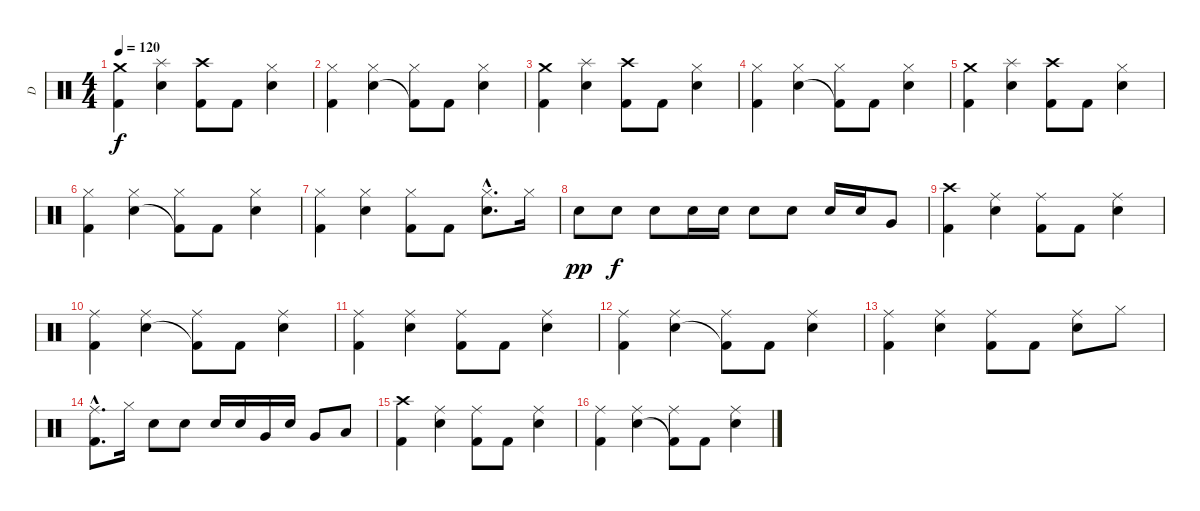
\track ("D" "D") {instrument percussion}
\staff {score}
\articulation defaults
\ts (4 4)
\tempo 120
\clef neutral
\ks c
("Crash medium (hit)" "Kick (hit) 2").4{dy f} ("Splash (hit)" "Snare (hit) 2").4 ("Crash high (hit)" "Kick (hit) 2").8 "Kick (hit) 2".8 ("Hi-Hat (closed)" "Snare (hit) 2").4 |
("Hi-Hat (closed)" "Kick (hit) 2").4 ("Hi-Hat (closed)" "Snare (hit) 2").4 ("Hi-Hat (closed)" "Kick (hit) 2"{t}).8 "Kick (hit) 2".8 ("Hi-Hat (closed)" "Snare (hit) 2").4 |
("Crash medium (hit)" "Kick (hit) 2").4 ("Splash (hit)" "Snare (hit) 2").4 ("Crash high (hit)" "Kick (hit) 2").8 "Kick (hit) 2".8 ("Hi-Hat (closed)" "Snare (hit) 2").4 |
("Hi-Hat (closed)" "Kick (hit) 2").4 ("Hi-Hat (closed)" "Snare (hit) 2").4 ("Hi-Hat (closed)" "Kick (hit) 2"{t}).8 "Kick (hit) 2".8 ("Hi-Hat (closed)" "Snare (hit) 2").4 |
("Crash medium (hit)" "Kick (hit) 2").4 ("Splash (hit)" "Snare (hit) 2").4 ("Crash high (hit)" "Kick (hit) 2").8 "Kick (hit) 2".8 ("Hi-Hat (closed)" "Snare (hit) 2").4 |
("Hi-Hat (closed)" "Kick (hit) 2").4 ("Hi-Hat (closed)" "Snare (hit) 2").4 ("Hi-Hat (closed)" "Kick (hit) 2"{t}).8 "Kick (hit) 2".8 ("Hi-Hat (closed)" "Snare (hit) 2").4 |
("Hi-Hat (closed)" "Kick (hit) 2").4 ("Hi-Hat (closed)" "Snare (hit) 2").4 ("Hi-Hat (closed)" "Kick (hit) 2").8 "Kick (hit) 2".8 ("Hi-Hat (closed)"{hac} "Snare (hit) 2"{hac}).8{d} "Hi-Hat (closed)".16 |
"Snare (hit) 2".8{dy pp volume 16} "Snare (hit) 2".8{dy f} "Snare (hit) 2".8 "Snare (hit) 2".16{volume 11} "Snare (hit) 2".16 "Snare (hit) 2".8{volume 12} "Snare (hit) 2".8{volume 13} "Snare (hit) 2".16{volume 14} "Snare (hit) 2".16 "Very Low Tom (hit)".8 |
("Crash high (hit)" "Kick (hit) 2").4 ("Ride (middle)" "Snare (hit) 2").4 ("Ride (middle)" "Kick (hit) 2").8 "Kick (hit) 2".8 ("Ride (middle)" "Snare (hit) 2").4 |
("Ride (middle)" "Kick (hit) 2").4 ("Ride (middle)" "Snare (hit) 2").4 ("Ride (middle)" "Kick (hit) 2"{t}).8 "Kick (hit) 2".8 ("Ride (middle)" "Snare (hit) 2").4 |
("Ride (middle)" "Kick (hit) 2").4 ("Ride (middle)" "Snare (hit) 2").4 ("Ride (middle)" "Kick (hit) 2").8 "Kick (hit) 2".8 ("Ride (middle)" "Snare (hit) 2").4 |
("Ride (middle)" "Kick (hit) 2").4 ("Ride (middle)" "Snare (hit) 2").4 ("Ride (middle)" "Kick (hit) 2"{t}).8 "Kick (hit) 2".8 ("Ride (middle)" "Snare (hit) 2").4 |
("Ride (middle)" "Kick (hit) 2").4 ("Ride (middle)" "Snare (hit) 2").4 ("Ride (middle)" "Kick (hit) 2").8 "Kick (hit) 2".8 ("Ride (middle)" "Snare (hit) 2").8 "Hi-Hat (closed)".8 |
("Ride (middle)"{hac} "Kick (hit) 2"{hac}).8{d} "Hi-Hat (closed)".16 "Snare (hit) 2".8 "Snare (hit) 2".8 "Snare (hit) 2".16 "Snare (hit) 2".16 "Very Low Tom (hit)".16 "Snare (hit) 2".16 "Very Low Tom (hit)".8 "Low Floor Tom (hit)".8 |
("Crash high (hit)" "Kick (hit) 2").4 ("Ride (middle)" "Snare (hit) 2").4 ("Ride (middle)" "Kick (hit) 2").8 "Kick (hit) 2".8 ("Ride (middle)" "Snare (hit) 2").4 |
("Ride (middle)" "Kick (hit) 2").4 ("Ride (middle)" "Snare (hit) 2").4 ("Ride (middle)" "Kick (hit) 2"{t}).8 "Kick (hit) 2".8 ("Ride (middle)" "Snare (hit) 2").4
